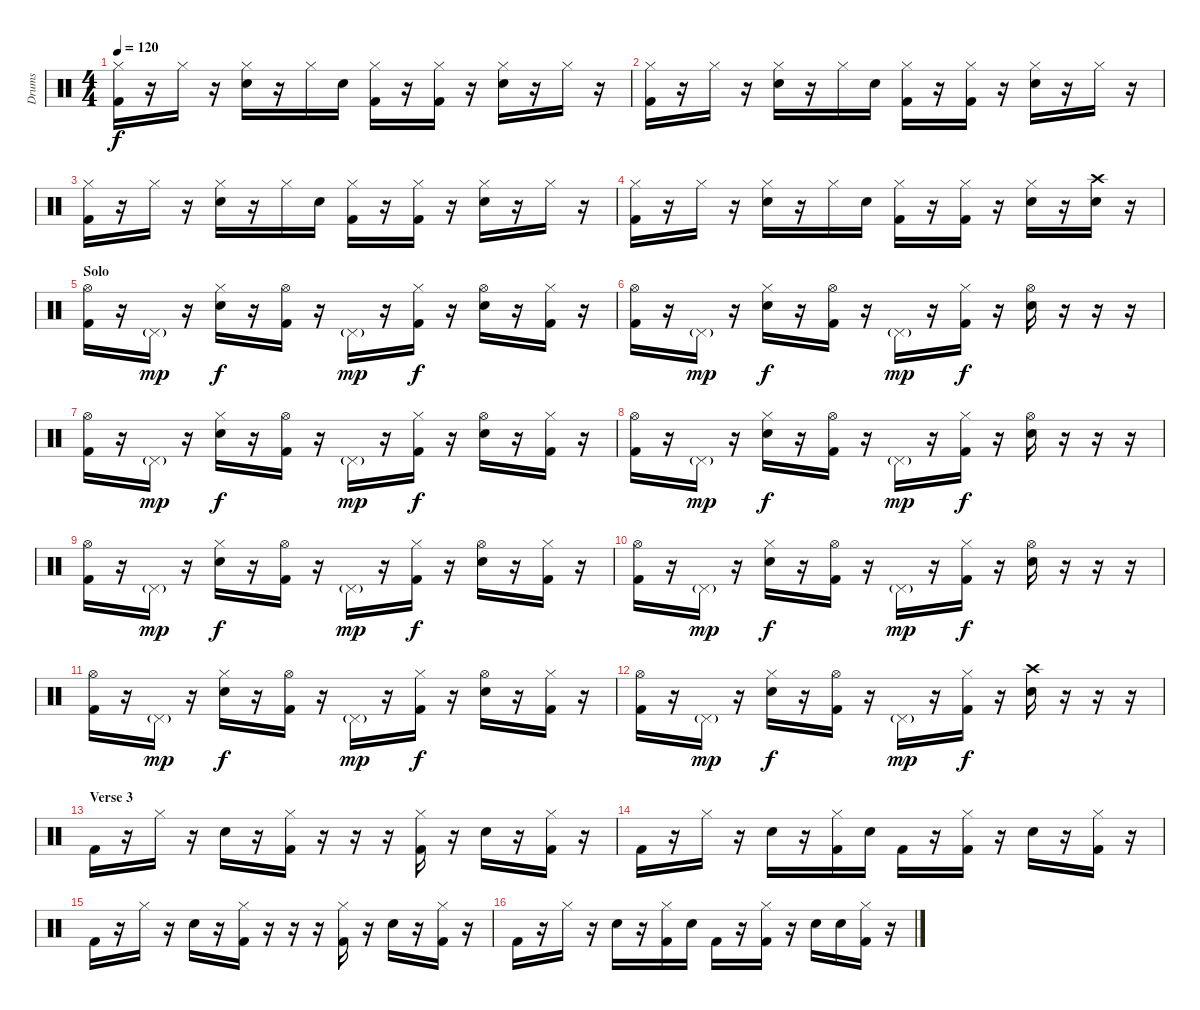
\track ("Drums" "Drums") {instrument percussion}
\staff {score}
\articulation defaults
\ts (4 4)
\tempo 120
\clef neutral
\ks c
("Hi-Hat (closed)" "Kick (hit) 2").16{dy f} r.16 "Hi-Hat (closed)".16 r.16 ("Hi-Hat (closed)" "Electric Snare (hit)").16 r.16 "Hi-Hat (closed)".16 "Electric Snare (hit)".16 ("Hi-Hat (closed)" "Kick (hit) 2").16 r.16 ("Hi-Hat (closed)" "Kick (hit) 2").16 r.16 ("Hi-Hat (closed)" "Electric Snare (hit)").16 r.16 "Hi-Hat (closed)".16 r.16 |
("Hi-Hat (closed)" "Kick (hit) 2").16 r.16 "Hi-Hat (closed)".16 r.16 ("Hi-Hat (closed)" "Electric Snare (hit)").16 r.16 "Hi-Hat (closed)".16 "Electric Snare (hit)".16 ("Hi-Hat (closed)" "Kick (hit) 2").16 r.16 ("Hi-Hat (closed)" "Kick (hit) 2").16 r.16 ("Hi-Hat (closed)" "Electric Snare (hit)").16 r.16 "Hi-Hat (closed)".16 r.16 |
("Hi-Hat (closed)" "Kick (hit) 2").16 r.16 "Hi-Hat (closed)".16 r.16 ("Hi-Hat (closed)" "Electric Snare (hit)").16 r.16 "Hi-Hat (closed)".16 "Electric Snare (hit)".16 ("Hi-Hat (closed)" "Kick (hit) 2").16 r.16 ("Hi-Hat (closed)" "Kick (hit) 2").16 r.16 ("Hi-Hat (closed)" "Electric Snare (hit)").16 r.16 "Hi-Hat (closed)".16 r.16 |
("Hi-Hat (closed)" "Kick (hit) 2").16 r.16 "Hi-Hat (closed)".16 r.16 ("Hi-Hat (closed)" "Electric Snare (hit)").16 r.16 "Hi-Hat (closed)".16 "Electric Snare (hit)".16 ("Hi-Hat (closed)" "Kick (hit) 2").16 r.16 ("Hi-Hat (closed)" "Kick (hit) 2").16 r.16 ("Hi-Hat (closed)" "Electric Snare (hit)").16 r.16 ("Crash high (hit)" "Electric Snare (hit)").16 r.16 |
\section ("" "Solo")
("Hi-Hat (open)" "Kick (hit) 2").16 r.16 "Pedal Hi-Hat (hit)"{g}.16{dy mp} r.16 ("Hi-Hat (closed)" "Electric Snare (hit)").16{dy f} r.16 ("Hi-Hat (open)" "Kick (hit) 2").16 r.16 "Pedal Hi-Hat (hit)"{g}.16{dy mp} r.16 ("Hi-Hat (closed)" "Kick (hit) 2").16{dy f} r.16 ("Hi-Hat (open)" "Electric Snare (hit)").16 r.16 ("Hi-Hat (closed)" "Kick (hit) 2").16 r.16 |
("Hi-Hat (open)" "Kick (hit) 2").16 r.16 "Pedal Hi-Hat (hit)"{g}.16{dy mp} r.16 ("Hi-Hat (closed)" "Electric Snare (hit)").16{dy f} r.16 ("Hi-Hat (open)" "Kick (hit) 2").16 r.16 "Pedal Hi-Hat (hit)"{g}.16{dy mp} r.16 ("Hi-Hat (closed)" "Kick (hit) 2").16{dy f} r.16 ("Hi-Hat (open)" "Electric Snare (hit)").16 r.16 r.16 r.16 |
("Hi-Hat (open)" "Kick (hit) 2").16 r.16 "Pedal Hi-Hat (hit)"{g}.16{dy mp} r.16 ("Hi-Hat (closed)" "Electric Snare (hit)").16{dy f} r.16 ("Hi-Hat (open)" "Kick (hit) 2").16 r.16 "Pedal Hi-Hat (hit)"{g}.16{dy mp} r.16 ("Hi-Hat (closed)" "Kick (hit) 2").16{dy f} r.16 ("Hi-Hat (open)" "Electric Snare (hit)").16 r.16 ("Hi-Hat (closed)" "Kick (hit) 2").16 r.16 |
("Hi-Hat (open)" "Kick (hit) 2").16 r.16 "Pedal Hi-Hat (hit)"{g}.16{dy mp} r.16 ("Hi-Hat (closed)" "Electric Snare (hit)").16{dy f} r.16 ("Hi-Hat (open)" "Kick (hit) 2").16 r.16 "Pedal Hi-Hat (hit)"{g}.16{dy mp} r.16 ("Hi-Hat (closed)" "Kick (hit) 2").16{dy f} r.16 ("Hi-Hat (open)" "Electric Snare (hit)").16 r.16 r.16 r.16 |
("Hi-Hat (open)" "Kick (hit) 2").16 r.16 "Pedal Hi-Hat (hit)"{g}.16{dy mp} r.16 ("Hi-Hat (closed)" "Electric Snare (hit)").16{dy f} r.16 ("Hi-Hat (open)" "Kick (hit) 2").16 r.16 "Pedal Hi-Hat (hit)"{g}.16{dy mp} r.16 ("Hi-Hat (closed)" "Kick (hit) 2").16{dy f} r.16 ("Hi-Hat (open)" "Electric Snare (hit)").16 r.16 ("Hi-Hat (closed)" "Kick (hit) 2").16 r.16 |
("Hi-Hat (open)" "Kick (hit) 2").16 r.16 "Pedal Hi-Hat (hit)"{g}.16{dy mp} r.16 ("Hi-Hat (closed)" "Electric Snare (hit)").16{dy f} r.16 ("Hi-Hat (open)" "Kick (hit) 2").16 r.16 "Pedal Hi-Hat (hit)"{g}.16{dy mp} r.16 ("Hi-Hat (closed)" "Kick (hit) 2").16{dy f} r.16 ("Hi-Hat (open)" "Electric Snare (hit)").16 r.16 r.16 r.16 |
("Hi-Hat (open)" "Kick (hit) 2").16 r.16 "Pedal Hi-Hat (hit)"{g}.16{dy mp} r.16 ("Hi-Hat (closed)" "Electric Snare (hit)").16{dy f} r.16 ("Hi-Hat (open)" "Kick (hit) 2").16 r.16 "Pedal Hi-Hat (hit)"{g}.16{dy mp} r.16 ("Hi-Hat (closed)" "Kick (hit) 2").16{dy f} r.16 ("Hi-Hat (open)" "Electric Snare (hit)").16 r.16 ("Hi-Hat (closed)" "Kick (hit) 2").16 r.16 |
("Hi-Hat (open)" "Kick (hit) 2").16 r.16 "Pedal Hi-Hat (hit)"{g}.16{dy mp} r.16 ("Hi-Hat (closed)" "Electric Snare (hit)").16{dy f} r.16 ("Hi-Hat (open)" "Kick (hit) 2").16 r.16 "Pedal Hi-Hat (hit)"{g}.16{dy mp} r.16 ("Hi-Hat (closed)" "Kick (hit) 2").16{dy f} r.16 ("Crash high (hit)" "Electric Snare (hit)").16 r.16 r.16 r.16 |
\section ("" "Verse 3")
"Kick (hit) 2".16 r.16 "Hi-Hat (closed)".16 r.16 "Electric Snare (hit)".16 r.16 ("Hi-Hat (closed)" "Kick (hit) 2").16 r.16 r.16 r.16 ("Hi-Hat (closed)" "Kick (hit) 2").16 r.16 "Electric Snare (hit)".16 r.16 ("Hi-Hat (closed)" "Kick (hit) 2").16 r.16 |
"Kick (hit) 2".16 r.16 "Hi-Hat (closed)".16 r.16 "Electric Snare (hit)".16 r.16 ("Hi-Hat (closed)" "Kick (hit) 2").16 "Electric Snare (hit)".16 "Kick (hit) 2".16 r.16 ("Hi-Hat (closed)" "Kick (hit) 2").16 r.16 "Electric Snare (hit)".16 r.16 ("Hi-Hat (closed)" "Kick (hit) 2").16 r.16 |
"Kick (hit) 2".16 r.16 "Hi-Hat (closed)".16 r.16 "Electric Snare (hit)".16 r.16 ("Hi-Hat (closed)" "Kick (hit) 2").16 r.16 r.16 r.16 ("Hi-Hat (closed)" "Kick (hit) 2").16 r.16 "Electric Snare (hit)".16 r.16 ("Hi-Hat (closed)" "Kick (hit) 2").16 r.16 |
"Kick (hit) 2".16 r.16 "Hi-Hat (closed)".16 r.16 "Electric Snare (hit)".16 r.16 ("Hi-Hat (closed)" "Kick (hit) 2").16 "Electric Snare (hit)".16 "Kick (hit) 2".16 r.16 ("Hi-Hat (closed)" "Kick (hit) 2").16 r.16 "Electric Snare (hit)".16 "Electric Snare (hit)".16 ("Hi-Hat (closed)" "Kick (hit) 2").16 r.16
